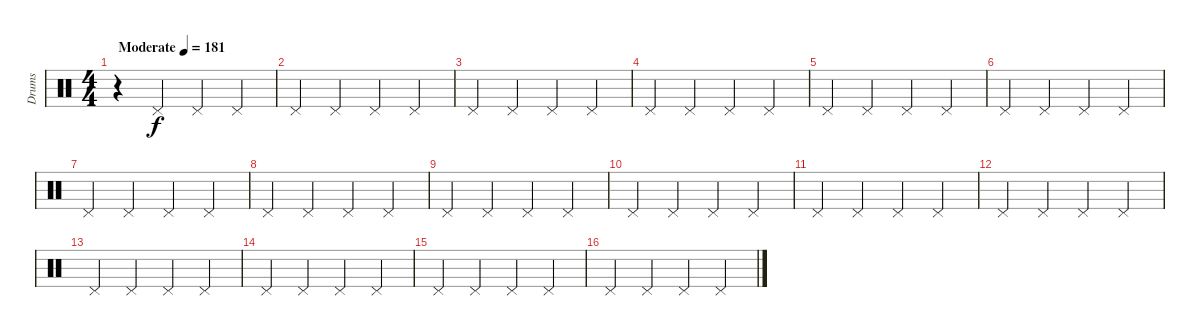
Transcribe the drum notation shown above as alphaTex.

\track ("Drums" "Drums") {instrument percussion}
\staff {score}
\articulation defaults
\ts (4 4)
\tempo (181 "Moderate")
\clef neutral
\ks c
r.4{dy f} "Pedal Hi-Hat (hit)".4 "Pedal Hi-Hat (hit)".4 "Pedal Hi-Hat (hit)".4 |
"Pedal Hi-Hat (hit)".4 "Pedal Hi-Hat (hit)".4 "Pedal Hi-Hat (hit)".4 "Pedal Hi-Hat (hit)".4 |
"Pedal Hi-Hat (hit)".4 "Pedal Hi-Hat (hit)".4 "Pedal Hi-Hat (hit)".4 "Pedal Hi-Hat (hit)".4 |
"Pedal Hi-Hat (hit)".4 "Pedal Hi-Hat (hit)".4 "Pedal Hi-Hat (hit)".4 "Pedal Hi-Hat (hit)".4 |
"Pedal Hi-Hat (hit)".4 "Pedal Hi-Hat (hit)".4 "Pedal Hi-Hat (hit)".4 "Pedal Hi-Hat (hit)".4 |
"Pedal Hi-Hat (hit)".4 "Pedal Hi-Hat (hit)".4 "Pedal Hi-Hat (hit)".4 "Pedal Hi-Hat (hit)".4 |
"Pedal Hi-Hat (hit)".4 "Pedal Hi-Hat (hit)".4 "Pedal Hi-Hat (hit)".4 "Pedal Hi-Hat (hit)".4 |
"Pedal Hi-Hat (hit)".4 "Pedal Hi-Hat (hit)".4 "Pedal Hi-Hat (hit)".4 "Pedal Hi-Hat (hit)".4 |
"Pedal Hi-Hat (hit)".4 "Pedal Hi-Hat (hit)".4 "Pedal Hi-Hat (hit)".4 "Pedal Hi-Hat (hit)".4 |
"Pedal Hi-Hat (hit)".4 "Pedal Hi-Hat (hit)".4 "Pedal Hi-Hat (hit)".4 "Pedal Hi-Hat (hit)".4 |
"Pedal Hi-Hat (hit)".4 "Pedal Hi-Hat (hit)".4 "Pedal Hi-Hat (hit)".4 "Pedal Hi-Hat (hit)".4 |
"Pedal Hi-Hat (hit)".4 "Pedal Hi-Hat (hit)".4 "Pedal Hi-Hat (hit)".4 "Pedal Hi-Hat (hit)".4 |
"Pedal Hi-Hat (hit)".4 "Pedal Hi-Hat (hit)".4 "Pedal Hi-Hat (hit)".4 "Pedal Hi-Hat (hit)".4 |
"Pedal Hi-Hat (hit)".4 "Pedal Hi-Hat (hit)".4 "Pedal Hi-Hat (hit)".4 "Pedal Hi-Hat (hit)".4 |
"Pedal Hi-Hat (hit)".4 "Pedal Hi-Hat (hit)".4 "Pedal Hi-Hat (hit)".4 "Pedal Hi-Hat (hit)".4 |
"Pedal Hi-Hat (hit)".4 "Pedal Hi-Hat (hit)".4 "Pedal Hi-Hat (hit)".4 "Pedal Hi-Hat (hit)".4
